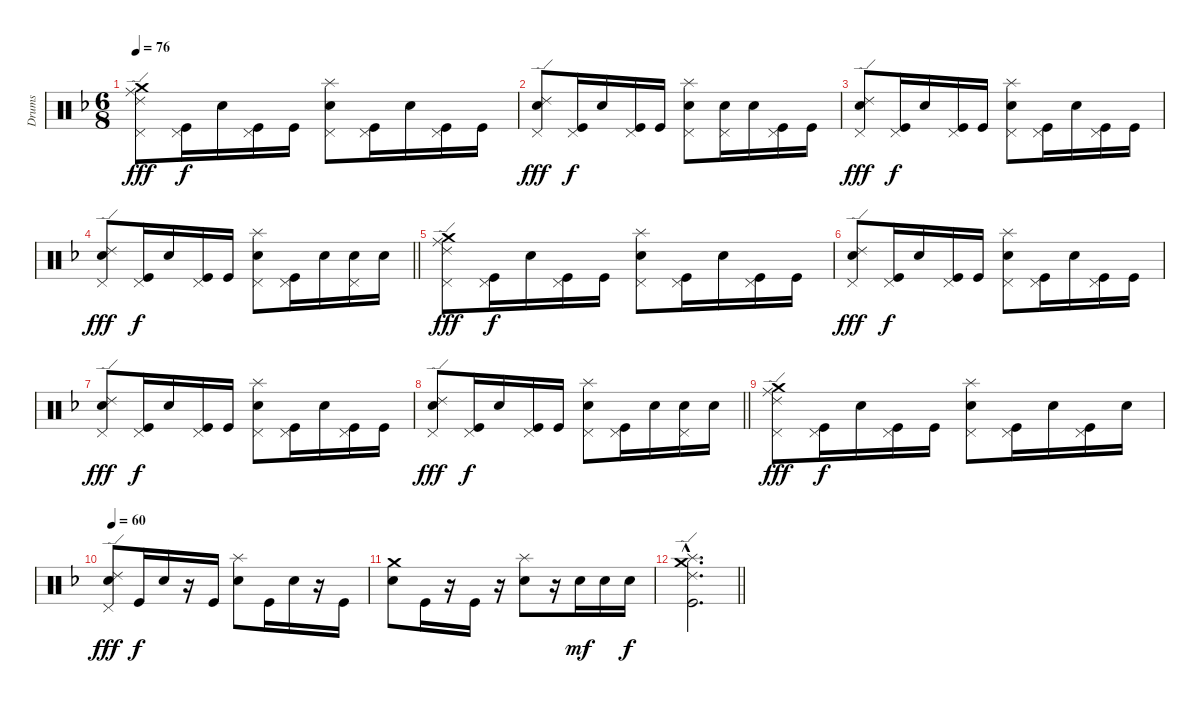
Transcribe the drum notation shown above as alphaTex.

\track ("Drums" "Drums") {instrument percussion}
\staff {score}
\articulation defaults
\ts (6 8)
\tempo 76
\clef neutral
\ks f
("Pedal Hi-Hat (hit)" "Ride (middle)" "Ride (edge) 2" "Crash medium (hit)").8{dy fff} ("Pedal Hi-Hat (hit)" "Kick (hit)").16{dy f} "Electric Snare (hit)".16 ("Pedal Hi-Hat (hit)" "Kick (hit)").16 "Kick (hit)".16 ("Pedal Hi-Hat (hit)" "Splash (hit)" "Electric Snare (hit)").8 ("Pedal Hi-Hat (hit)" "Kick (hit)").16 "Electric Snare (hit)".16 ("Pedal Hi-Hat (hit)" "Kick (hit)").16 "Kick (hit)".16 |
("Pedal Hi-Hat (hit)" "Ride (edge) 2" "Electric Snare (hit)").8{dy fff} ("Pedal Hi-Hat (hit)" "Kick (hit)").16{dy f} "Electric Snare (hit)".16 ("Pedal Hi-Hat (hit)" "Kick (hit)").16 "Kick (hit)".16 ("Pedal Hi-Hat (hit)" "Splash (hit)" "Electric Snare (hit)").8 ("Pedal Hi-Hat (hit)" "Electric Snare (hit)").16 "Electric Snare (hit)".16 ("Pedal Hi-Hat (hit)" "Kick (hit)").16 "Kick (hit)".16 |
("Pedal Hi-Hat (hit)" "Ride (edge) 2" "Electric Snare (hit)").8{dy fff} ("Pedal Hi-Hat (hit)" "Kick (hit)").16{dy f} "Electric Snare (hit)".16 ("Pedal Hi-Hat (hit)" "Kick (hit)").16 "Kick (hit)".16 ("Pedal Hi-Hat (hit)" "Splash (hit)" "Electric Snare (hit)").8 ("Pedal Hi-Hat (hit)" "Kick (hit)").16 "Electric Snare (hit)".16 ("Pedal Hi-Hat (hit)" "Kick (hit)").16 "Kick (hit)".16 |
\barLineRight lightlight
("Pedal Hi-Hat (hit)" "Ride (edge) 2" "Electric Snare (hit)").8{dy fff} ("Pedal Hi-Hat (hit)" "Kick (hit)").16{dy f} "Electric Snare (hit)".16 ("Pedal Hi-Hat (hit)" "Kick (hit)").16 "Kick (hit)".16 ("Pedal Hi-Hat (hit)" "Splash (hit)" "Electric Snare (hit)").8 ("Pedal Hi-Hat (hit)" "Kick (hit)").16 "Electric Snare (hit)".16 ("Pedal Hi-Hat (hit)" "Electric Snare (hit)").16 "Electric Snare (hit)".16 |
("Pedal Hi-Hat (hit)" "Ride (middle)" "Ride (edge) 2" "Crash medium (hit)").8{dy fff} ("Pedal Hi-Hat (hit)" "Kick (hit)").16{dy f} "Electric Snare (hit)".16 ("Pedal Hi-Hat (hit)" "Kick (hit)").16 "Kick (hit)".16 ("Pedal Hi-Hat (hit)" "Splash (hit)" "Electric Snare (hit)").8 ("Pedal Hi-Hat (hit)" "Kick (hit)").16 "Electric Snare (hit)".16 ("Pedal Hi-Hat (hit)" "Kick (hit)").16 "Kick (hit)".16 |
("Pedal Hi-Hat (hit)" "Ride (edge) 2" "Electric Snare (hit)").8{dy fff} ("Pedal Hi-Hat (hit)" "Kick (hit)").16{dy f} "Electric Snare (hit)".16 ("Pedal Hi-Hat (hit)" "Kick (hit)").16 "Kick (hit)".16 ("Pedal Hi-Hat (hit)" "Splash (hit)" "Electric Snare (hit)").8 ("Pedal Hi-Hat (hit)" "Kick (hit)").16 "Electric Snare (hit)".16 ("Pedal Hi-Hat (hit)" "Kick (hit)").16 "Kick (hit)".16 |
("Pedal Hi-Hat (hit)" "Ride (edge) 2" "Electric Snare (hit)").8{dy fff} ("Pedal Hi-Hat (hit)" "Kick (hit)").16{dy f} "Electric Snare (hit)".16 ("Pedal Hi-Hat (hit)" "Kick (hit)").16 "Kick (hit)".16 ("Pedal Hi-Hat (hit)" "Splash (hit)" "Electric Snare (hit)").8 ("Pedal Hi-Hat (hit)" "Kick (hit)").16 "Electric Snare (hit)".16 ("Pedal Hi-Hat (hit)" "Kick (hit)").16 "Kick (hit)".16 |
\barLineRight lightlight
("Pedal Hi-Hat (hit)" "Ride (edge) 2" "Electric Snare (hit)").8{dy fff} ("Pedal Hi-Hat (hit)" "Kick (hit)").16{dy f} "Electric Snare (hit)".16 ("Pedal Hi-Hat (hit)" "Kick (hit)").16 "Kick (hit)".16 ("Pedal Hi-Hat (hit)" "Splash (hit)" "Electric Snare (hit)").8 ("Pedal Hi-Hat (hit)" "Kick (hit)").16 "Electric Snare (hit)".16 ("Pedal Hi-Hat (hit)" "Electric Snare (hit)").16 "Electric Snare (hit)".16 |
("Pedal Hi-Hat (hit)" "Ride (middle)" "Ride (edge) 2" "Crash medium (hit)").8{dy fff} ("Pedal Hi-Hat (hit)" "Kick (hit)").16{dy f} "Electric Snare (hit)".16 ("Pedal Hi-Hat (hit)" "Kick (hit)").16 "Kick (hit)".16 ("Pedal Hi-Hat (hit)" "Splash (hit)" "Electric Snare (hit)").8 ("Pedal Hi-Hat (hit)" "Kick (hit)").16 "Electric Snare (hit)".16 ("Pedal Hi-Hat (hit)" "Kick (hit)").16 "Electric Snare (hit)".16 |
\tempo 60
("Pedal Hi-Hat (hit)" "Ride (edge) 2" "Electric Snare (hit)").8{dy fff} "Kick (hit)".16{dy f} "Electric Snare (hit)".16 r.16 "Kick (hit)".16 ("Splash (hit)" "Electric Snare (hit)").8 "Kick (hit)".16 "Electric Snare (hit)".16 r.16 "Kick (hit)".16 |
("Crash medium (hit)" "Electric Snare (hit)").8 "Kick (hit)".16 r.16 "Kick (hit)".16 r.16 ("Splash (hit)" "Electric Snare (hit)").8 r.16 "Electric Snare (hit)".16{dy mf} "Electric Snare (hit)".16 "Electric Snare (hit)".16{dy f} |
\barLineRight lightlight
("Splash (hit)"{hac} "Crash medium (hit)"{hac} "Ride (edge) 2"{hac} "Kick (hit)"{hac}).2{d}
